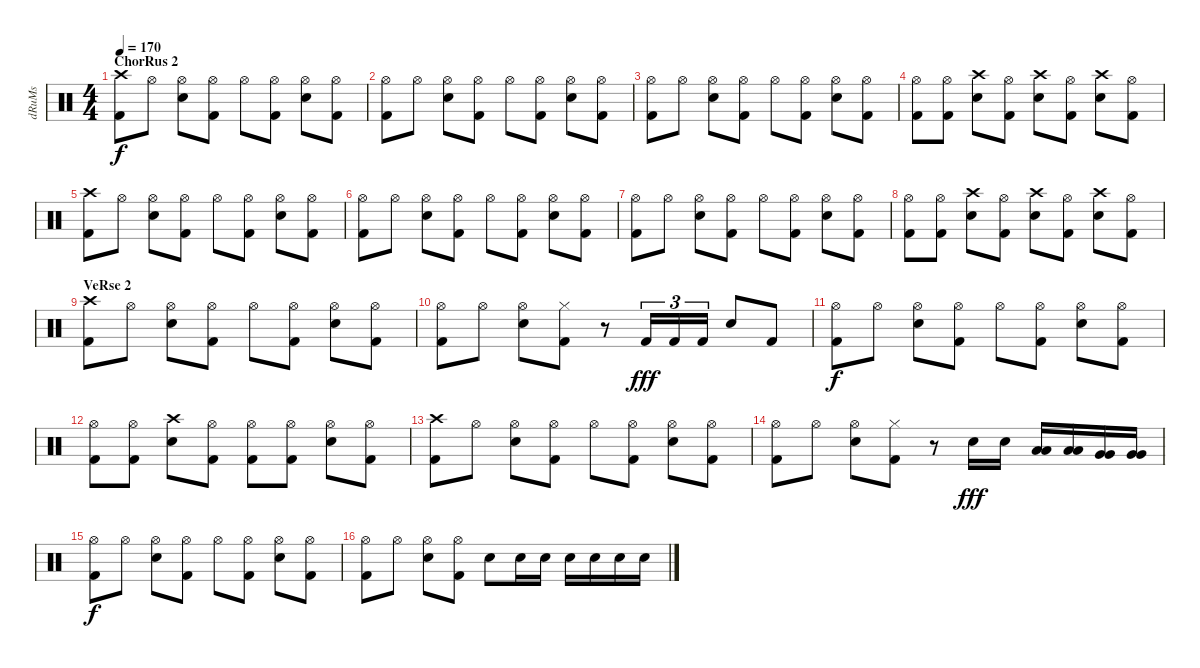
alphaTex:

\track ("dRuMs" "dRuMs") {instrument percussion}
\staff {score}
\articulation defaults
\ts (4 4)
\section ("" "ChorRus 2")
\tempo 170
\clef neutral
\ks c
("Crash high (hit)" "Kick (hit) 2").8{dy f} "Hi-Hat (open)".8 ("Hi-Hat (open)" "Electric Snare (hit)").8 ("Hi-Hat (open)" "Kick (hit) 2").8 "Hi-Hat (open)".8 ("Hi-Hat (open)" "Kick (hit) 2").8 ("Hi-Hat (open)" "Electric Snare (hit)").8 ("Hi-Hat (open)" "Kick (hit) 2").8 |
("Hi-Hat (open)" "Kick (hit) 2").8 "Hi-Hat (open)".8 ("Hi-Hat (open)" "Electric Snare (hit)").8 ("Hi-Hat (open)" "Kick (hit) 2").8 "Hi-Hat (open)".8 ("Hi-Hat (open)" "Kick (hit) 2").8 ("Hi-Hat (open)" "Electric Snare (hit)").8 ("Hi-Hat (open)" "Kick (hit) 2").8 |
("Hi-Hat (open)" "Kick (hit) 2").8 "Hi-Hat (open)".8 ("Hi-Hat (open)" "Electric Snare (hit)").8 ("Hi-Hat (open)" "Kick (hit) 2").8 "Hi-Hat (open)".8 ("Hi-Hat (open)" "Kick (hit) 2").8 ("Hi-Hat (open)" "Electric Snare (hit)").8 ("Hi-Hat (open)" "Kick (hit) 2").8 |
("Hi-Hat (open)" "Kick (hit) 2").8 ("Hi-Hat (open)" "Kick (hit) 2").8 ("Crash high (hit)" "Electric Snare (hit)").8 ("Hi-Hat (open)" "Kick (hit) 2").8 ("Crash high (hit)" "Electric Snare (hit)").8 ("Hi-Hat (open)" "Kick (hit) 2").8 ("Crash high (hit)" "Electric Snare (hit)").8 ("Hi-Hat (open)" "Kick (hit) 2").8 |
("Crash high (hit)" "Kick (hit) 2").8 "Hi-Hat (open)".8 ("Hi-Hat (open)" "Electric Snare (hit)").8 ("Hi-Hat (open)" "Kick (hit) 2").8 "Hi-Hat (open)".8 ("Hi-Hat (open)" "Kick (hit) 2").8 ("Hi-Hat (open)" "Electric Snare (hit)").8 ("Hi-Hat (open)" "Kick (hit) 2").8 |
("Hi-Hat (open)" "Kick (hit) 2").8 "Hi-Hat (open)".8 ("Hi-Hat (open)" "Electric Snare (hit)").8 ("Hi-Hat (open)" "Kick (hit) 2").8 "Hi-Hat (open)".8 ("Hi-Hat (open)" "Kick (hit) 2").8 ("Hi-Hat (open)" "Electric Snare (hit)").8 ("Hi-Hat (open)" "Kick (hit) 2").8 |
("Hi-Hat (open)" "Kick (hit) 2").8 "Hi-Hat (open)".8 ("Hi-Hat (open)" "Electric Snare (hit)").8 ("Hi-Hat (open)" "Kick (hit) 2").8 "Hi-Hat (open)".8 ("Hi-Hat (open)" "Kick (hit) 2").8 ("Hi-Hat (open)" "Electric Snare (hit)").8 ("Hi-Hat (open)" "Kick (hit) 2").8 |
("Hi-Hat (open)" "Kick (hit) 2").8 ("Hi-Hat (open)" "Kick (hit) 2").8 ("Crash high (hit)" "Electric Snare (hit)").8 ("Hi-Hat (open)" "Kick (hit) 2").8 ("Crash high (hit)" "Electric Snare (hit)").8 ("Hi-Hat (open)" "Kick (hit) 2").8 ("Crash high (hit)" "Electric Snare (hit)").8 ("Hi-Hat (open)" "Kick (hit) 2").8 |
\section ("" "VeRse 2")
("Crash high (hit)" "Kick (hit) 2").8 "Hi-Hat (open)".8 ("Hi-Hat (open)" "Electric Snare (hit)").8 ("Hi-Hat (open)" "Kick (hit) 2").8 "Hi-Hat (open)".8 ("Hi-Hat (open)" "Kick (hit) 2").8 ("Hi-Hat (open)" "Electric Snare (hit)").8 ("Hi-Hat (open)" "Kick (hit) 2").8 |
("Hi-Hat (open)" "Kick (hit) 2").8 "Hi-Hat (open)".8 ("Hi-Hat (open)" "Electric Snare (hit)").8 ("Hi-Hat (closed)" "Kick (hit) 2").8 r.8 "Kick (hit) 2".16{tu (3 2) dy fff} "Kick (hit) 2".16{tu (3 2)} "Kick (hit) 2".16{tu (3 2)} "Electric Snare (hit)".8 "Kick (hit) 2".8 |
("Hi-Hat (open)" "Kick (hit) 2").8{dy f} "Hi-Hat (open)".8 ("Hi-Hat (open)" "Electric Snare (hit)").8 ("Hi-Hat (open)" "Kick (hit) 2").8 "Hi-Hat (open)".8 ("Hi-Hat (open)" "Kick (hit) 2").8 ("Hi-Hat (open)" "Electric Snare (hit)").8 ("Hi-Hat (open)" "Kick (hit) 2").8 |
("Hi-Hat (open)" "Kick (hit) 2").8 ("Hi-Hat (open)" "Kick (hit) 2").8 ("Crash high (hit)" "Electric Snare (hit)").8 ("Hi-Hat (open)" "Kick (hit) 2").8 ("Hi-Hat (open)" "Kick (hit) 2").8 ("Hi-Hat (open)" "Kick (hit) 2").8 ("Hi-Hat (open)" "Electric Snare (hit)").8 ("Hi-Hat (open)" "Kick (hit) 2").8 |
("Crash high (hit)" "Kick (hit) 2").8 "Hi-Hat (open)".8 ("Hi-Hat (open)" "Electric Snare (hit)").8 ("Hi-Hat (open)" "Kick (hit) 2").8 "Hi-Hat (open)".8 ("Hi-Hat (open)" "Kick (hit) 2").8 ("Hi-Hat (open)" "Electric Snare (hit)").8 ("Hi-Hat (open)" "Kick (hit) 2").8 |
("Hi-Hat (open)" "Kick (hit) 2").8 "Hi-Hat (open)".8 ("Hi-Hat (open)" "Electric Snare (hit)").8 ("Hi-Hat (closed)" "Kick (hit) 2").8 r.8 "Electric Snare (hit)".16{dy fff} "Electric Snare (hit)".16 ("Low Tom (hit)" "Low Tom (hit)").16 ("Low Tom (hit)" "Low Tom (hit)").16 ("Very Low Tom (hit)" "Very Low Tom (hit)").16 ("Very Low Tom (hit)" "Very Low Tom (hit)").16 |
("Hi-Hat (open)" "Kick (hit) 2").8{dy f} "Hi-Hat (open)".8 ("Hi-Hat (open)" "Electric Snare (hit)").8 ("Hi-Hat (open)" "Kick (hit) 2").8 "Hi-Hat (open)".8 ("Hi-Hat (open)" "Kick (hit) 2").8 ("Hi-Hat (open)" "Electric Snare (hit)").8 ("Hi-Hat (open)" "Kick (hit) 2").8 |
("Hi-Hat (open)" "Kick (hit) 2").8 "Hi-Hat (open)".8 ("Hi-Hat (open)" "Electric Snare (hit)").8 ("Hi-Hat (open)" "Kick (hit) 2").8 "Electric Snare (hit)".8 "Electric Snare (hit)".16 "Electric Snare (hit)".16 "Electric Snare (hit)".16 "Electric Snare (hit)".16 "Electric Snare (hit)".16 "Electric Snare (hit)".16
